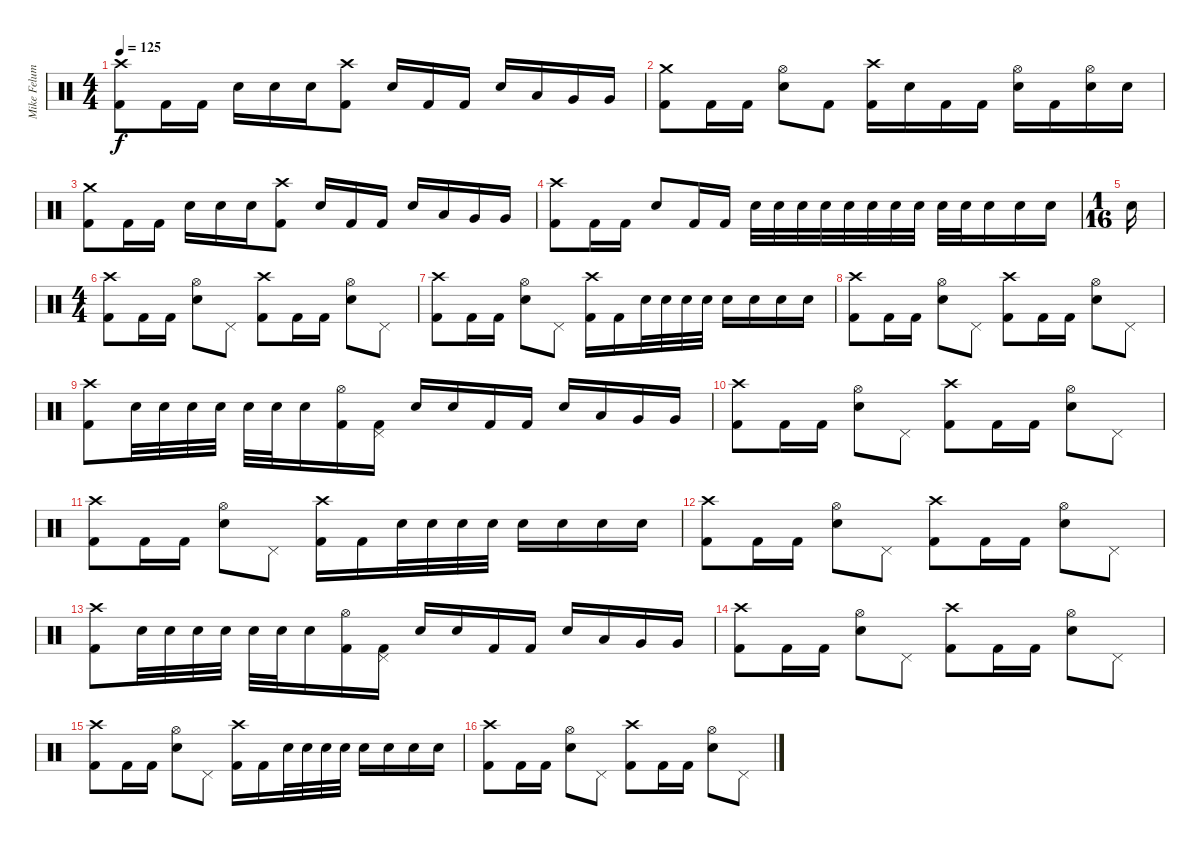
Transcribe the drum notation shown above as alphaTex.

\track ("Mike Felumlee" "Mike Felum") {instrument percussion}
\staff {score}
\articulation defaults
\ts (4 4)
\tempo 125
\clef neutral
\ks c
("Crash high (hit)" "Kick (hit) 2").8{dy f} "Kick (hit) 2".16 "Kick (hit) 2".16 "Electric Snare (hit)".16 "Electric Snare (hit)".16 "Electric Snare (hit)".16 ("Crash high (hit)" "Kick (hit) 2").8 "Electric Snare (hit)".16 "Kick (hit) 2".16 "Kick (hit) 2".16 "Electric Snare (hit)".16 "Low Tom (hit)".16 "Very Low Tom (hit)".16 "Very Low Tom (hit)".16 |
("Crash medium (hit)" "Kick (hit) 2").8 "Kick (hit) 2".16 "Kick (hit) 2".16 ("Hi-Hat (open)" "Electric Snare (hit)").8 "Kick (hit) 2".8 ("Crash high (hit)" "Kick (hit) 2").16 "Electric Snare (hit)".16 "Kick (hit) 2".16 "Kick (hit) 2".16 ("Hi-Hat (open)" "Electric Snare (hit)").16 "Kick (hit) 2".16 ("Hi-Hat (open)" "Electric Snare (hit)").16 "Electric Snare (hit)".16 |
("Crash medium (hit)" "Kick (hit) 2").8 "Kick (hit) 2".16 "Kick (hit) 2".16 "Electric Snare (hit)".16 "Electric Snare (hit)".16 "Electric Snare (hit)".16 ("Crash high (hit)" "Kick (hit) 2").8 "Electric Snare (hit)".16 "Kick (hit) 2".16 "Kick (hit) 2".16 "Electric Snare (hit)".16 "Low Tom (hit)".16 "Very Low Tom (hit)".16 "Very Low Tom (hit)".16 |
("Crash high (hit)" "Kick (hit) 2").8 "Kick (hit) 2".16 "Kick (hit) 2".16 "Electric Snare (hit)".8 "Kick (hit) 2".16 "Kick (hit) 2".16 "Electric Snare (hit)".32 "Electric Snare (hit)".32 "Electric Snare (hit)".32 "Electric Snare (hit)".32 "Electric Snare (hit)".32 "Electric Snare (hit)".32 "Electric Snare (hit)".32 "Electric Snare (hit)".32 "Electric Snare (hit)".32 "Electric Snare (hit)".32 "Electric Snare (hit)".16 "Electric Snare (hit)".16 "Electric Snare (hit)".16 |
\ts (1 16)
"Electric Snare (hit)".16 |
\ts (4 4)
("Crash high (hit)" "Kick (hit) 2").8 "Kick (hit) 2".16 "Kick (hit) 2".16 ("Hi-Hat (open)" "Electric Snare (hit)").8 "Pedal Hi-Hat (hit)".8 ("Crash high (hit)" "Kick (hit) 2").8 "Kick (hit) 2".16 "Kick (hit) 2".16 ("Hi-Hat (open)" "Electric Snare (hit)").8 "Pedal Hi-Hat (hit)".8 |
("Crash high (hit)" "Kick (hit) 2").8 "Kick (hit) 2".16 "Kick (hit) 2".16 ("Hi-Hat (open)" "Electric Snare (hit)").8 "Pedal Hi-Hat (hit)".8 ("Crash high (hit)" "Kick (hit) 2").16 "Kick (hit) 2".16 "Electric Snare (hit)".32 "Electric Snare (hit)".32 "Electric Snare (hit)".32 "Electric Snare (hit)".32 "Electric Snare (hit)".16 "Electric Snare (hit)".16 "Electric Snare (hit)".16 "Electric Snare (hit)".16 |
("Crash high (hit)" "Kick (hit) 2").8 "Kick (hit) 2".16 "Kick (hit) 2".16 ("Hi-Hat (open)" "Electric Snare (hit)").8 "Pedal Hi-Hat (hit)".8 ("Crash high (hit)" "Kick (hit) 2").8 "Kick (hit) 2".16 "Kick (hit) 2".16 ("Hi-Hat (open)" "Electric Snare (hit)").8 "Pedal Hi-Hat (hit)".8 |
("Crash high (hit)" "Kick (hit) 2").8 "Electric Snare (hit)".32 "Electric Snare (hit)".32 "Electric Snare (hit)".32 "Electric Snare (hit)".32 "Electric Snare (hit)".32 "Electric Snare (hit)".32 "Electric Snare (hit)".16 ("Hi-Hat (open)" "Kick (hit) 2").16 ("Pedal Hi-Hat (hit)" "Kick (hit) 2").16 "Electric Snare (hit)".16 "Electric Snare (hit)".16 "Kick (hit) 2".16 "Kick (hit) 2".16 "Electric Snare (hit)".16 "Low Tom (hit)".16 "Very Low Tom (hit)".16 "Very Low Tom (hit)".16 |
("Crash high (hit)" "Kick (hit) 2").8 "Kick (hit) 2".16 "Kick (hit) 2".16 ("Hi-Hat (open)" "Electric Snare (hit)").8 "Pedal Hi-Hat (hit)".8 ("Crash high (hit)" "Kick (hit) 2").8 "Kick (hit) 2".16 "Kick (hit) 2".16 ("Hi-Hat (open)" "Electric Snare (hit)").8 "Pedal Hi-Hat (hit)".8 |
("Crash high (hit)" "Kick (hit) 2").8 "Kick (hit) 2".16 "Kick (hit) 2".16 ("Hi-Hat (open)" "Electric Snare (hit)").8 "Pedal Hi-Hat (hit)".8 ("Crash high (hit)" "Kick (hit) 2").16 "Kick (hit) 2".16 "Electric Snare (hit)".32 "Electric Snare (hit)".32 "Electric Snare (hit)".32 "Electric Snare (hit)".32 "Electric Snare (hit)".16 "Electric Snare (hit)".16 "Electric Snare (hit)".16 "Electric Snare (hit)".16 |
("Crash high (hit)" "Kick (hit) 2").8 "Kick (hit) 2".16 "Kick (hit) 2".16 ("Hi-Hat (open)" "Electric Snare (hit)").8 "Pedal Hi-Hat (hit)".8 ("Crash high (hit)" "Kick (hit) 2").8 "Kick (hit) 2".16 "Kick (hit) 2".16 ("Hi-Hat (open)" "Electric Snare (hit)").8 "Pedal Hi-Hat (hit)".8 |
("Crash high (hit)" "Kick (hit) 2").8 "Electric Snare (hit)".32 "Electric Snare (hit)".32 "Electric Snare (hit)".32 "Electric Snare (hit)".32 "Electric Snare (hit)".32 "Electric Snare (hit)".32 "Electric Snare (hit)".16 ("Hi-Hat (open)" "Kick (hit) 2").16 ("Pedal Hi-Hat (hit)" "Kick (hit) 2").16 "Electric Snare (hit)".16 "Electric Snare (hit)".16 "Kick (hit) 2".16 "Kick (hit) 2".16 "Electric Snare (hit)".16 "Low Tom (hit)".16 "Very Low Tom (hit)".16 "Very Low Tom (hit)".16 |
("Crash high (hit)" "Kick (hit) 2").8 "Kick (hit) 2".16 "Kick (hit) 2".16 ("Hi-Hat (open)" "Electric Snare (hit)").8 "Pedal Hi-Hat (hit)".8 ("Crash high (hit)" "Kick (hit) 2").8 "Kick (hit) 2".16 "Kick (hit) 2".16 ("Hi-Hat (open)" "Electric Snare (hit)").8 "Pedal Hi-Hat (hit)".8 |
("Crash high (hit)" "Kick (hit) 2").8 "Kick (hit) 2".16 "Kick (hit) 2".16 ("Hi-Hat (open)" "Electric Snare (hit)").8 "Pedal Hi-Hat (hit)".8 ("Crash high (hit)" "Kick (hit) 2").16 "Kick (hit) 2".16 "Electric Snare (hit)".32 "Electric Snare (hit)".32 "Electric Snare (hit)".32 "Electric Snare (hit)".32 "Electric Snare (hit)".16 "Electric Snare (hit)".16 "Electric Snare (hit)".16 "Electric Snare (hit)".16 |
("Crash high (hit)" "Kick (hit) 2").8 "Kick (hit) 2".16 "Kick (hit) 2".16 ("Hi-Hat (open)" "Electric Snare (hit)").8 "Pedal Hi-Hat (hit)".8 ("Crash high (hit)" "Kick (hit) 2").8 "Kick (hit) 2".16 "Kick (hit) 2".16 ("Hi-Hat (open)" "Electric Snare (hit)").8 "Pedal Hi-Hat (hit)".8
